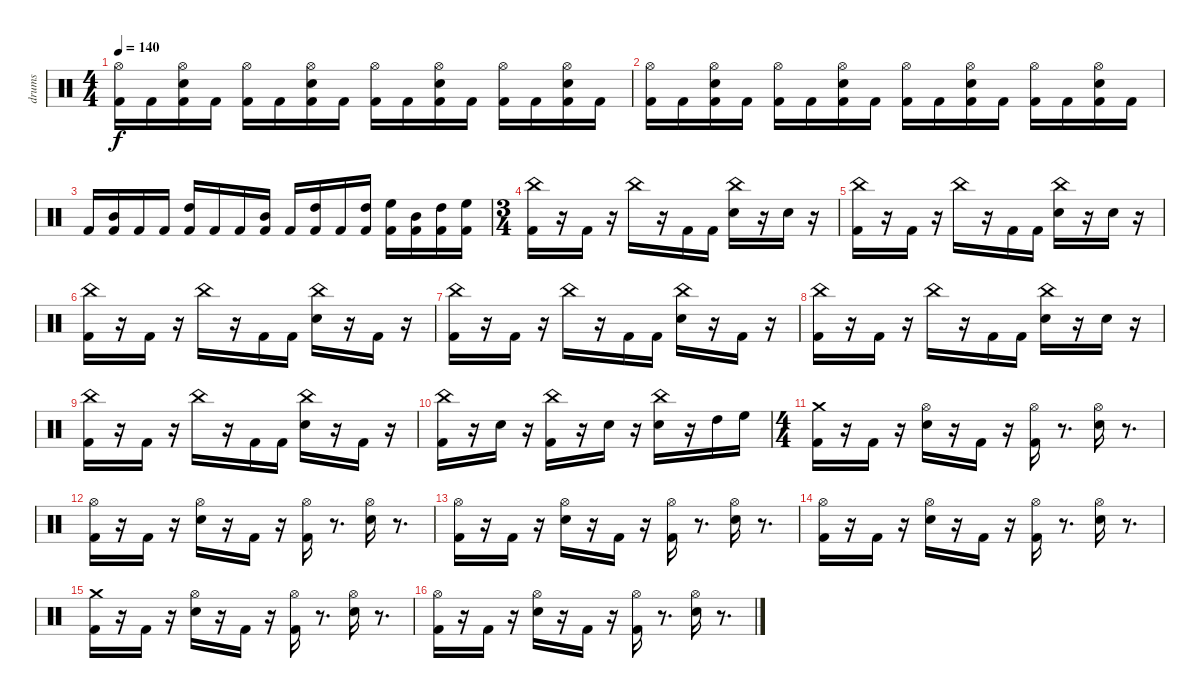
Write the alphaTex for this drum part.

\track ("drums" "drums") {instrument percussion}
\staff {score}
\articulation defaults
\ts (4 4)
\tempo 140
\clef neutral
\ks c
("Hi-Hat (open)" "Kick (hit) 2").16{dy f} "Kick (hit) 2".16 ("Hi-Hat (open)" "Kick (hit) 2" "Snare (hit) 2").16 "Kick (hit) 2".16 ("Hi-Hat (open)" "Kick (hit) 2").16 "Kick (hit) 2".16 ("Hi-Hat (open)" "Kick (hit) 2" "Snare (hit) 2").16 "Kick (hit) 2".16 ("Hi-Hat (open)" "Kick (hit) 2").16 "Kick (hit) 2".16 ("Hi-Hat (open)" "Kick (hit) 2" "Snare (hit) 2").16 "Kick (hit) 2".16 ("Hi-Hat (open)" "Kick (hit) 2").16 "Kick (hit) 2".16 ("Hi-Hat (open)" "Kick (hit) 2" "Snare (hit) 2").16 "Kick (hit) 2".16 |
("Hi-Hat (open)" "Kick (hit) 2").16 "Kick (hit) 2".16 ("Hi-Hat (open)" "Kick (hit) 2" "Snare (hit) 2").16 "Kick (hit) 2".16 ("Hi-Hat (open)" "Kick (hit) 2").16 "Kick (hit) 2".16 ("Hi-Hat (open)" "Kick (hit) 2" "Snare (hit) 2").16 "Kick (hit) 2".16 ("Hi-Hat (open)" "Kick (hit) 2").16 "Kick (hit) 2".16 ("Hi-Hat (open)" "Kick (hit) 2" "Snare (hit) 2").16 "Kick (hit) 2".16 ("Hi-Hat (open)" "Kick (hit) 2").16 "Kick (hit) 2".16 ("Hi-Hat (open)" "Kick (hit) 2" "Snare (hit) 2").16 "Kick (hit) 2".16 |
"Kick (hit) 2".16 ("Mid Tom (hit)" "Kick (hit) 2").16 "Kick (hit) 2".16 "Kick (hit) 2".16 ("High Tom (hit)" "Kick (hit) 2").16 "Kick (hit) 2".16 "Kick (hit) 2".16 ("Mid Tom (hit)" "Kick (hit) 2").16 "Kick (hit) 2".16 ("High Tom (hit)" "Kick (hit) 2").16 "Kick (hit) 2".16 ("High Tom (hit)" "Kick (hit) 2").16 ("High Floor Tom (hit)" "Kick (hit) 2").16 ("Mid Tom (hit)" "Kick (hit) 2").16 ("High Tom (hit)" "Kick (hit) 2").16 ("High Floor Tom (hit)" "Kick (hit) 2").16 |
\ts (3 4)
("China (hit)" "Kick (hit) 2").16 r.16 "Kick (hit) 2".16 r.16 "China (hit)".16 r.16 "Kick (hit) 2".16 "Kick (hit) 2".16 ("China (hit)" "Snare (hit) 2").16 r.16 "Snare (hit) 2".16 r.16 |
("China (hit)" "Kick (hit) 2").16 r.16 "Kick (hit) 2".16 r.16 "China (hit)".16 r.16 "Kick (hit) 2".16 "Kick (hit) 2".16 ("China (hit)" "Snare (hit) 2").16 r.16 "Snare (hit) 2".16 r.16 |
("China (hit)" "Kick (hit) 2").16 r.16 "Kick (hit) 2".16 r.16 "China (hit)".16 r.16 "Kick (hit) 2".16 "Kick (hit) 2".16 ("China (hit)" "Snare (hit) 2").16 r.16 "Kick (hit) 2".16 r.16 |
("China (hit)" "Kick (hit) 2").16 r.16 "Kick (hit) 2".16 r.16 "China (hit)".16 r.16 "Kick (hit) 2".16 "Kick (hit) 2".16 ("China (hit)" "Snare (hit) 2").16 r.16 "Kick (hit) 2".16 r.16 |
("China (hit)" "Kick (hit) 2").16 r.16 "Kick (hit) 2".16 r.16 "China (hit)".16 r.16 "Kick (hit) 2".16 "Kick (hit) 2".16 ("China (hit)" "Snare (hit) 2").16 r.16 "Snare (hit) 2".16 r.16 |
("China (hit)" "Kick (hit) 2").16 r.16 "Kick (hit) 2".16 r.16 "China (hit)".16 r.16 "Kick (hit) 2".16 "Kick (hit) 2".16 ("China (hit)" "Snare (hit) 2").16 r.16 "Kick (hit) 2".16 r.16 |
("China (hit)" "Kick (hit) 2").16 r.16 "Snare (hit) 2".16 r.16 ("Kick (hit) 2" "China (hit)").16 r.16 "Snare (hit) 2".16 r.16 ("China (hit)" "Snare (hit) 2").16 r.16 "High Tom (hit)".16 "High Floor Tom (hit)".16 |
\ts (4 4)
("Crash medium (hit)" "Kick (hit) 2").16 r.16 "Kick (hit) 2".16 r.16 ("Hi-Hat (open)" "Snare (hit) 2").16 r.16 "Kick (hit) 2".16 r.16 ("Hi-Hat (open)" "Kick (hit) 2").16 r.8{d} ("Hi-Hat (open)" "Snare (hit) 2").16 r.8{d} |
("Hi-Hat (open)" "Kick (hit) 2").16 r.16 "Kick (hit) 2".16 r.16 ("Hi-Hat (open)" "Snare (hit) 2").16 r.16 "Kick (hit) 2".16 r.16 ("Hi-Hat (open)" "Kick (hit) 2").16 r.8{d} ("Hi-Hat (open)" "Snare (hit) 2").16 r.8{d} |
("Hi-Hat (open)" "Kick (hit) 2").16 r.16 "Kick (hit) 2".16 r.16 ("Hi-Hat (open)" "Snare (hit) 2").16 r.16 "Kick (hit) 2".16 r.16 ("Hi-Hat (open)" "Kick (hit) 2").16 r.8{d} ("Hi-Hat (open)" "Snare (hit) 2").16 r.8{d} |
("Hi-Hat (open)" "Kick (hit) 2").16 r.16 "Kick (hit) 2".16 r.16 ("Hi-Hat (open)" "Snare (hit) 2").16 r.16 "Kick (hit) 2".16 r.16 ("Hi-Hat (open)" "Kick (hit) 2").16 r.8{d} ("Hi-Hat (open)" "Snare (hit) 2").16 r.8{d} |
("Crash medium (hit)" "Kick (hit) 2").16 r.16 "Kick (hit) 2".16 r.16 ("Hi-Hat (open)" "Snare (hit) 2").16 r.16 "Kick (hit) 2".16 r.16 ("Hi-Hat (open)" "Kick (hit) 2").16 r.8{d} ("Hi-Hat (open)" "Snare (hit) 2").16 r.8{d} |
("Hi-Hat (open)" "Kick (hit) 2").16 r.16 "Kick (hit) 2".16 r.16 ("Hi-Hat (open)" "Snare (hit) 2").16 r.16 "Kick (hit) 2".16 r.16 ("Hi-Hat (open)" "Kick (hit) 2").16 r.8{d} ("Hi-Hat (open)" "Snare (hit) 2").16 r.8{d}
